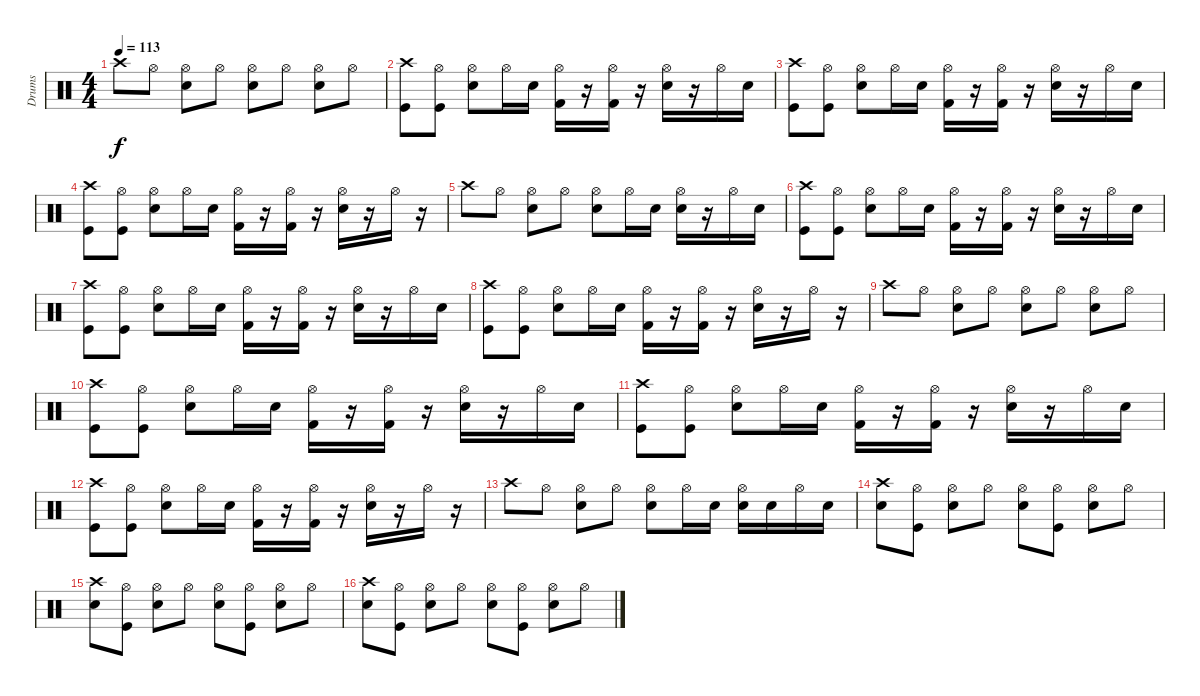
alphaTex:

\track ("Drums" "Drums") {instrument percussion}
\staff {score}
\articulation defaults
\ts (4 4)
\tempo 113
\clef neutral
\ks c "Crash high (hit)".8{dy f} "Hi-Hat (open)".8
("Hi-Hat (open)" "Electric Snare (hit)").8 "Hi-Hat (open)".8 ("Hi-Hat (open)" "Electric Snare (hit)").8 "Hi-Hat (open)".8 ("Hi-Hat (open)" "Electric Snare (hit)").8 "Hi-Hat (open)".8 |
("Crash high (hit)" "Kick (hit)").8 ("Hi-Hat (open)" "Kick (hit)").8 ("Hi-Hat (open)" "Electric Snare (hit)").8 "Hi-Hat (open)".16 "Electric Snare (hit)".16 ("Hi-Hat (open)" "Kick (hit) 2").16 r.16 ("Hi-Hat (open)" "Kick (hit) 2").16 r.16 ("Hi-Hat (open)" "Electric Snare (hit)").16 r.16 "Hi-Hat (open)".16 "Electric Snare (hit)".16 |
("Crash high (hit)" "Kick (hit)").8 ("Hi-Hat (open)" "Kick (hit)").8 ("Hi-Hat (open)" "Electric Snare (hit)").8 "Hi-Hat (open)".16 "Electric Snare (hit)".16 ("Hi-Hat (open)" "Kick (hit) 2").16 r.16 ("Hi-Hat (open)" "Kick (hit) 2").16 r.16 ("Hi-Hat (open)" "Electric Snare (hit)").16 r.16 "Hi-Hat (open)".16 "Electric Snare (hit)".16 |
("Crash high (hit)" "Kick (hit)").8 ("Hi-Hat (open)" "Kick (hit)").8 ("Hi-Hat (open)" "Electric Snare (hit)").8 "Hi-Hat (open)".16 "Electric Snare (hit)".16 ("Hi-Hat (open)" "Kick (hit) 2").16 r.16 ("Hi-Hat (open)" "Kick (hit) 2").16 r.16 ("Hi-Hat (open)" "Electric Snare (hit)").16 r.16 "Hi-Hat (open)".16 r.16 |
"Crash high (hit)".8 "Hi-Hat (open)".8 ("Hi-Hat (open)" "Electric Snare (hit)").8 "Hi-Hat (open)".8 ("Hi-Hat (open)" "Electric Snare (hit)").8 "Hi-Hat (open)".16 "Electric Snare (hit)".16 ("Hi-Hat (open)" "Electric Snare (hit)").16 r.16 "Hi-Hat (open)".16 "Electric Snare (hit)".16 |
("Crash high (hit)" "Kick (hit)").8 ("Hi-Hat (open)" "Kick (hit)").8 ("Hi-Hat (open)" "Electric Snare (hit)").8 "Hi-Hat (open)".16 "Electric Snare (hit)".16 ("Hi-Hat (open)" "Kick (hit) 2").16 r.16 ("Hi-Hat (open)" "Kick (hit) 2").16 r.16 ("Hi-Hat (open)" "Electric Snare (hit)").16 r.16 "Hi-Hat (open)".16 "Electric Snare (hit)".16 |
("Crash high (hit)" "Kick (hit)").8 ("Hi-Hat (open)" "Kick (hit)").8 ("Hi-Hat (open)" "Electric Snare (hit)").8 "Hi-Hat (open)".16 "Electric Snare (hit)".16 ("Hi-Hat (open)" "Kick (hit) 2").16 r.16 ("Hi-Hat (open)" "Kick (hit) 2").16 r.16 ("Hi-Hat (open)" "Electric Snare (hit)").16 r.16 "Hi-Hat (open)".16 "Electric Snare (hit)".16 |
("Crash high (hit)" "Kick (hit)").8 ("Hi-Hat (open)" "Kick (hit)").8 ("Hi-Hat (open)" "Electric Snare (hit)").8 "Hi-Hat (open)".16 "Electric Snare (hit)".16 ("Hi-Hat (open)" "Kick (hit) 2").16 r.16 ("Hi-Hat (open)" "Kick (hit) 2").16 r.16 ("Hi-Hat (open)" "Electric Snare (hit)").16 r.16 "Hi-Hat (open)".16 r.16 |
"Crash high (hit)".8 "Hi-Hat (open)".8 ("Hi-Hat (open)" "Electric Snare (hit)").8 "Hi-Hat (open)".8 ("Hi-Hat (open)" "Electric Snare (hit)").8 "Hi-Hat (open)".8 ("Hi-Hat (open)" "Electric Snare (hit)").8 "Hi-Hat (open)".8 |
("Crash high (hit)" "Kick (hit)").8 ("Hi-Hat (open)" "Kick (hit)").8 ("Hi-Hat (open)" "Electric Snare (hit)").8 "Hi-Hat (open)".16 "Electric Snare (hit)".16 ("Hi-Hat (open)" "Kick (hit) 2").16 r.16 ("Hi-Hat (open)" "Kick (hit) 2").16 r.16 ("Hi-Hat (open)" "Electric Snare (hit)").16 r.16 "Hi-Hat (open)".16 "Electric Snare (hit)".16 |
("Crash high (hit)" "Kick (hit)").8 ("Hi-Hat (open)" "Kick (hit)").8 ("Hi-Hat (open)" "Electric Snare (hit)").8 "Hi-Hat (open)".16 "Electric Snare (hit)".16 ("Hi-Hat (open)" "Kick (hit) 2").16 r.16 ("Hi-Hat (open)" "Kick (hit) 2").16 r.16 ("Hi-Hat (open)" "Electric Snare (hit)").16 r.16 "Hi-Hat (open)".16 "Electric Snare (hit)".16 |
("Crash high (hit)" "Kick (hit)").8 ("Hi-Hat (open)" "Kick (hit)").8 ("Hi-Hat (open)" "Electric Snare (hit)").8 "Hi-Hat (open)".16 "Electric Snare (hit)".16 ("Hi-Hat (open)" "Kick (hit) 2").16 r.16 ("Hi-Hat (open)" "Kick (hit) 2").16 r.16 ("Hi-Hat (open)" "Electric Snare (hit)").16 r.16 "Hi-Hat (open)".16 r.16 |
"Crash high (hit)".8 "Hi-Hat (open)".8 ("Hi-Hat (open)" "Electric Snare (hit)").8 "Hi-Hat (open)".8 ("Hi-Hat (open)" "Electric Snare (hit)").8 "Hi-Hat (open)".16 "Electric Snare (hit)".16 ("Hi-Hat (open)" "Electric Snare (hit)").16 "Electric Snare (hit)".16 "Hi-Hat (open)".16 "Electric Snare (hit)".16 |
("Crash high (hit)" "Electric Snare (hit)").8 ("Hi-Hat (open)" "Kick (hit)").8 ("Hi-Hat (open)" "Electric Snare (hit)").8 "Hi-Hat (open)".8 ("Hi-Hat (open)" "Electric Snare (hit)").8 ("Hi-Hat (open)" "Kick (hit)").8 ("Hi-Hat (open)" "Electric Snare (hit)").8 "Hi-Hat (open)".8 |
("Crash high (hit)" "Electric Snare (hit)").8 ("Hi-Hat (open)" "Kick (hit)").8 ("Hi-Hat (open)" "Electric Snare (hit)").8 "Hi-Hat (open)".8 ("Hi-Hat (open)" "Electric Snare (hit)").8 ("Hi-Hat (open)" "Kick (hit)").8 ("Hi-Hat (open)" "Electric Snare (hit)").8 "Hi-Hat (open)".8 |
("Crash high (hit)" "Electric Snare (hit)").8 ("Hi-Hat (open)" "Kick (hit)").8 ("Hi-Hat (open)" "Electric Snare (hit)").8 "Hi-Hat (open)".8 ("Hi-Hat (open)" "Electric Snare (hit)").8 ("Hi-Hat (open)" "Kick (hit)").8 ("Hi-Hat (open)" "Electric Snare (hit)").8 "Hi-Hat (open)".8
